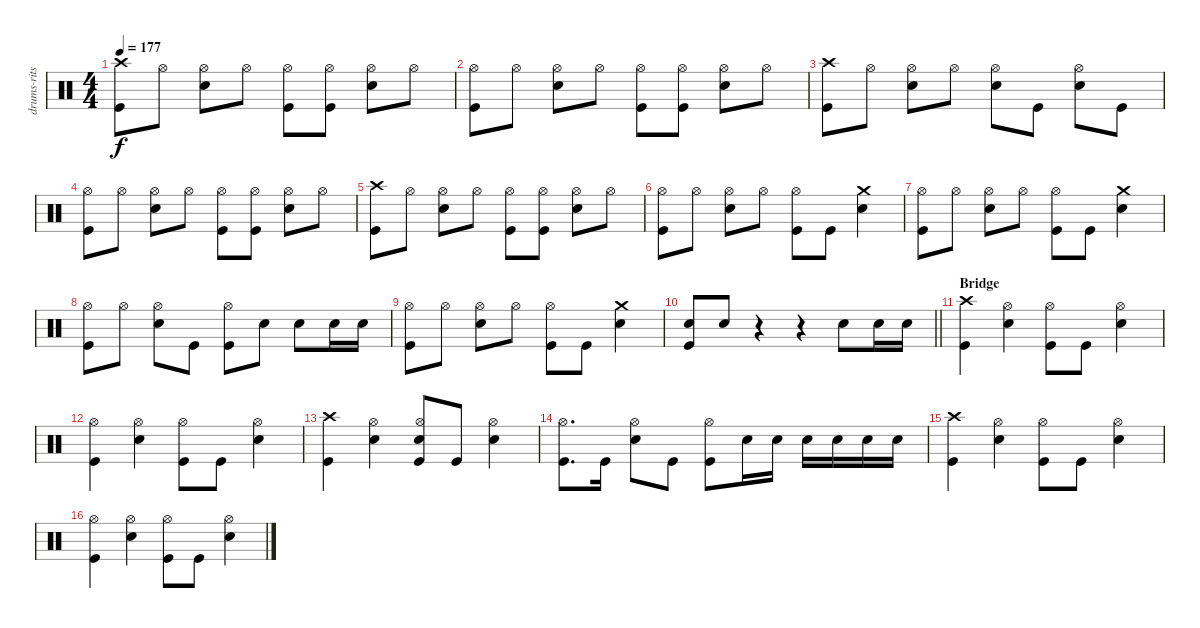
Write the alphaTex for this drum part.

\track ("drums-ritsu takana" "drums-rits") {instrument percussion}
\staff {score}
\articulation defaults
\ts (4 4)
\tempo 177
\clef neutral
\ks c
("Kick (hit)" "Crash high (hit)").8{dy f} "Hi-Hat (open)".8 ("Hi-Hat (open)" "Snare (hit) 2").8 "Hi-Hat (open)".8 ("Hi-Hat (open)" "Kick (hit)").8 ("Kick (hit)" "Hi-Hat (open)").8 ("Hi-Hat (open)" "Snare (hit) 2").8 "Hi-Hat (open)".8 |
("Kick (hit)" "Hi-Hat (open)").8 "Hi-Hat (open)".8 ("Hi-Hat (open)" "Snare (hit) 2").8 "Hi-Hat (open)".8 ("Hi-Hat (open)" "Kick (hit)").8 ("Kick (hit)" "Hi-Hat (open)").8 ("Hi-Hat (open)" "Snare (hit) 2").8 "Hi-Hat (open)".8 |
("Kick (hit)" "Crash high (hit)").8 "Hi-Hat (open)".8 ("Hi-Hat (open)" "Snare (hit) 2").8 "Hi-Hat (open)".8 ("Hi-Hat (open)" "Snare (hit) 2").8 "Kick (hit)".8 ("Hi-Hat (open)" "Snare (hit) 2").8 "Kick (hit)".8 |
("Kick (hit)" "Hi-Hat (open)").8 "Hi-Hat (open)".8 ("Hi-Hat (open)" "Snare (hit) 2").8 "Hi-Hat (open)".8 ("Hi-Hat (open)" "Kick (hit)").8 ("Kick (hit)" "Hi-Hat (open)").8 ("Hi-Hat (open)" "Snare (hit) 2").8 "Hi-Hat (open)".8 |
("Kick (hit)" "Crash high (hit)").8 "Hi-Hat (open)".8 ("Hi-Hat (open)" "Snare (hit) 2").8 "Hi-Hat (open)".8 ("Hi-Hat (open)" "Kick (hit)").8 ("Kick (hit)" "Hi-Hat (open)").8 ("Hi-Hat (open)" "Snare (hit) 2").8 "Hi-Hat (open)".8 |
("Kick (hit)" "Hi-Hat (open)").8 "Hi-Hat (open)".8 ("Hi-Hat (open)" "Snare (hit) 2").8 "Hi-Hat (open)".8 ("Hi-Hat (open)" "Kick (hit)").8 "Kick (hit)".8 ("Crash medium (hit)" "Snare (hit) 2").4 |
("Kick (hit)" "Hi-Hat (open)").8 "Hi-Hat (open)".8 ("Hi-Hat (open)" "Snare (hit) 2").8 "Hi-Hat (open)".8 ("Hi-Hat (open)" "Kick (hit)").8 "Kick (hit)".8 ("Crash medium (hit)" "Snare (hit) 2").4 |
("Kick (hit)" "Hi-Hat (open)").8 "Hi-Hat (open)".8 ("Hi-Hat (open)" "Snare (hit) 2").8 "Kick (hit)".8 ("Hi-Hat (open)" "Kick (hit)").8 "Snare (hit) 2".8 "Snare (hit) 2".8 "Snare (hit) 2".16 "Snare (hit) 2".16 |
("Kick (hit)" "Hi-Hat (open)").8 "Hi-Hat (open)".8 ("Hi-Hat (open)" "Snare (hit) 2").8 "Hi-Hat (open)".8 ("Hi-Hat (open)" "Kick (hit)").8 "Kick (hit)".8 ("Crash medium (hit)" "Snare (hit) 2").4 |
\barLineRight lightlight
("Snare (hit) 2" "Kick (hit)").8 "Snare (hit) 2".8 r.4 r.4 "Snare (hit) 2".8 "Snare (hit) 2".16 "Snare (hit) 2".16 |
\section ("" "Bridge")
("Crash high (hit)" "Kick (hit)").4 ("Hi-Hat (open)" "Snare (hit) 2").4 ("Hi-Hat (open)" "Kick (hit)").8 "Kick (hit)".8 ("Hi-Hat (open)" "Snare (hit) 2").4 |
("Hi-Hat (open)" "Kick (hit)").4 ("Hi-Hat (open)" "Snare (hit) 2").4 ("Hi-Hat (open)" "Kick (hit)").8 "Kick (hit)".8 ("Hi-Hat (open)" "Snare (hit) 2").4 |
("Crash high (hit)" "Kick (hit)").4 ("Hi-Hat (open)" "Snare (hit) 2").4 ("Hi-Hat (open)" "Snare (hit) 2" "Kick (hit)").8 "Kick (hit)".8 ("Hi-Hat (open)" "Snare (hit) 2").4 |
("Hi-Hat (open)" "Kick (hit)").8{d} "Kick (hit)".16 ("Hi-Hat (open)" "Snare (hit) 2").8 "Kick (hit)".8 ("Hi-Hat (open)" "Kick (hit)").8 "Snare (hit) 2".16 "Snare (hit) 2".16 "Snare (hit) 2".16 "Snare (hit) 2".16 "Snare (hit) 2".16 "Snare (hit) 2".16 |
("Crash high (hit)" "Kick (hit)").4 ("Hi-Hat (open)" "Snare (hit) 2").4 ("Hi-Hat (open)" "Kick (hit)").8 "Kick (hit)".8 ("Hi-Hat (open)" "Snare (hit) 2").4 |
("Hi-Hat (open)" "Kick (hit)").4 ("Hi-Hat (open)" "Snare (hit) 2").4 ("Hi-Hat (open)" "Kick (hit)").8 "Kick (hit)".8 ("Hi-Hat (open)" "Snare (hit) 2").4
